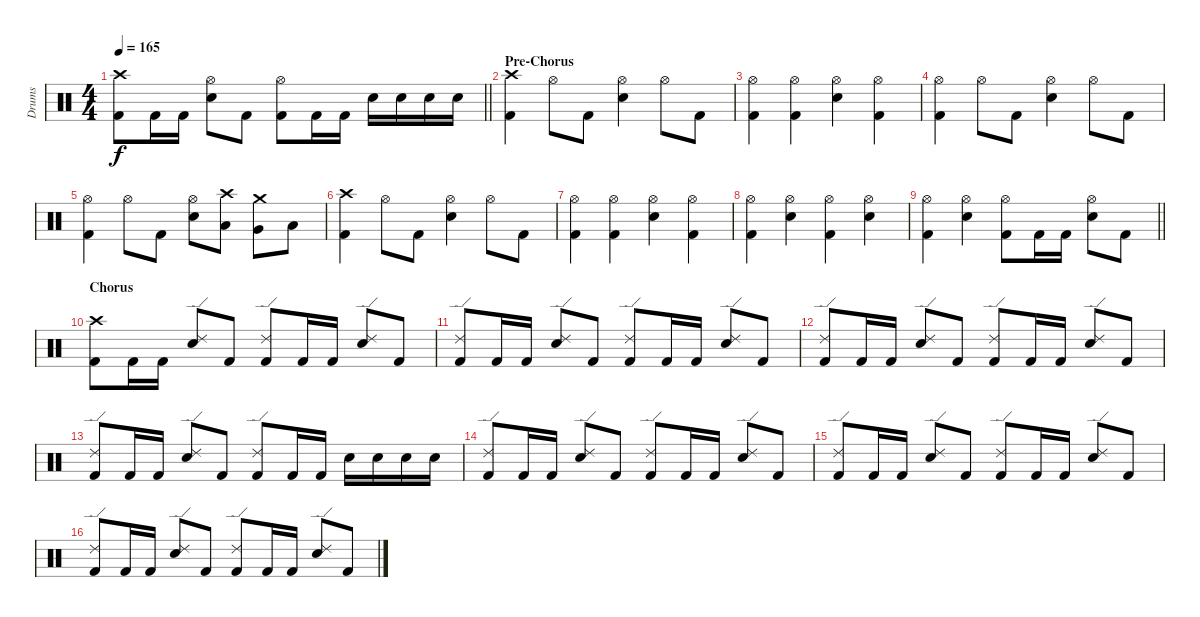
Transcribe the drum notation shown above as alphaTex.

\track ("Drums" "Drums") {instrument percussion}
\staff {score}
\articulation defaults
\ts (4 4)
\tempo 165
\clef neutral
\barLineRight lightlight
\ks c
("Crash high (hit)" "Kick (hit) 2").8{dy f} "Kick (hit) 2".16 "Kick (hit) 2".16 ("Hi-Hat (open)" "Snare (hit) 2").8 "Kick (hit) 2".8 ("Hi-Hat (open)" "Kick (hit) 2").8 "Kick (hit) 2".16 "Kick (hit) 2".16 "Snare (hit) 2".16 "Snare (hit) 2".16 "Snare (hit) 2".16 "Snare (hit) 2".16 |
\section ("" "Pre-Chorus")
("Crash high (hit)" "Kick (hit) 2").4 "Hi-Hat (open)".8 "Kick (hit) 2".8 ("Hi-Hat (open)" "Snare (hit) 2").4 "Hi-Hat (open)".8 "Kick (hit) 2".8 |
("Hi-Hat (open)" "Kick (hit) 2").4 ("Hi-Hat (open)" "Kick (hit) 2").4 ("Hi-Hat (open)" "Snare (hit) 2").4 ("Hi-Hat (open)" "Kick (hit) 2").4 |
("Hi-Hat (open)" "Kick (hit) 2").4 "Hi-Hat (open)".8 "Kick (hit) 2".8 ("Hi-Hat (open)" "Snare (hit) 2").4 "Hi-Hat (open)".8 "Kick (hit) 2".8 |
("Hi-Hat (open)" "Kick (hit) 2").4 "Hi-Hat (open)".8 "Kick (hit) 2".8 ("Hi-Hat (open)" "Snare (hit) 2").8 ("Crash high (hit)" "Low Tom (hit)").8 ("Crash medium (hit)" "Very Low Tom (hit)").8 "Low Floor Tom (hit)".8 |
("Crash high (hit)" "Kick (hit) 2").4 "Hi-Hat (open)".8 "Kick (hit) 2".8 ("Hi-Hat (open)" "Snare (hit) 2").4 "Hi-Hat (open)".8 "Kick (hit) 2".8 |
("Hi-Hat (open)" "Kick (hit) 2").4 ("Hi-Hat (open)" "Kick (hit) 2").4 ("Hi-Hat (open)" "Snare (hit) 2").4 ("Hi-Hat (open)" "Kick (hit) 2").4 |
("Hi-Hat (open)" "Kick (hit) 2").4 ("Hi-Hat (open)" "Snare (hit) 2").4 ("Hi-Hat (open)" "Kick (hit) 2").4 ("Hi-Hat (open)" "Snare (hit) 2").4 |
\barLineRight lightlight
("Hi-Hat (open)" "Kick (hit) 2").4 ("Hi-Hat (open)" "Snare (hit) 2").4 ("Hi-Hat (open)" "Kick (hit) 2").8 "Kick (hit) 2".16 "Kick (hit) 2".16 ("Hi-Hat (open)" "Snare (hit) 2").8 "Kick (hit) 2".8 |
\section ("" "Chorus")
("Crash high (hit)" "Kick (hit) 2").8 "Kick (hit) 2".16 "Kick (hit) 2".16 ("Ride (edge) 2" "Snare (hit) 2").8 "Kick (hit) 2".8 ("Ride (edge) 2" "Kick (hit) 2").8 "Kick (hit) 2".16 "Kick (hit) 2".16 ("Ride (edge) 2" "Snare (hit) 2").8 "Kick (hit) 2".8 |
("Ride (edge) 2" "Kick (hit) 2").8 "Kick (hit) 2".16 "Kick (hit) 2".16 ("Ride (edge) 2" "Snare (hit) 2").8 "Kick (hit) 2".8 ("Ride (edge) 2" "Kick (hit) 2").8 "Kick (hit) 2".16 "Kick (hit) 2".16 ("Ride (edge) 2" "Snare (hit) 2").8 "Kick (hit) 2".8 |
("Ride (edge) 2" "Kick (hit) 2").8 "Kick (hit) 2".16 "Kick (hit) 2".16 ("Ride (edge) 2" "Snare (hit) 2").8 "Kick (hit) 2".8 ("Ride (edge) 2" "Kick (hit) 2").8 "Kick (hit) 2".16 "Kick (hit) 2".16 ("Ride (edge) 2" "Snare (hit) 2").8 "Kick (hit) 2".8 |
("Ride (edge) 2" "Kick (hit) 2").8 "Kick (hit) 2".16 "Kick (hit) 2".16 ("Ride (edge) 2" "Snare (hit) 2").8 "Kick (hit) 2".8 ("Ride (edge) 2" "Kick (hit) 2").8 "Kick (hit) 2".16 "Kick (hit) 2".16 "Snare (hit) 2".16 "Snare (hit) 2".16 "Snare (hit) 2".16 "Snare (hit) 2".16 |
("Ride (edge) 2" "Kick (hit) 2").8 "Kick (hit) 2".16 "Kick (hit) 2".16 ("Ride (edge) 2" "Snare (hit) 2").8 "Kick (hit) 2".8 ("Ride (edge) 2" "Kick (hit) 2").8 "Kick (hit) 2".16 "Kick (hit) 2".16 ("Ride (edge) 2" "Snare (hit) 2").8 "Kick (hit) 2".8 |
("Ride (edge) 2" "Kick (hit) 2").8 "Kick (hit) 2".16 "Kick (hit) 2".16 ("Ride (edge) 2" "Snare (hit) 2").8 "Kick (hit) 2".8 ("Ride (edge) 2" "Kick (hit) 2").8 "Kick (hit) 2".16 "Kick (hit) 2".16 ("Ride (edge) 2" "Snare (hit) 2").8 "Kick (hit) 2".8 |
("Ride (edge) 2" "Kick (hit) 2").8 "Kick (hit) 2".16 "Kick (hit) 2".16 ("Ride (edge) 2" "Snare (hit) 2").8 "Kick (hit) 2".8 ("Ride (edge) 2" "Kick (hit) 2").8 "Kick (hit) 2".16 "Kick (hit) 2".16 ("Ride (edge) 2" "Snare (hit) 2").8 "Kick (hit) 2".8
